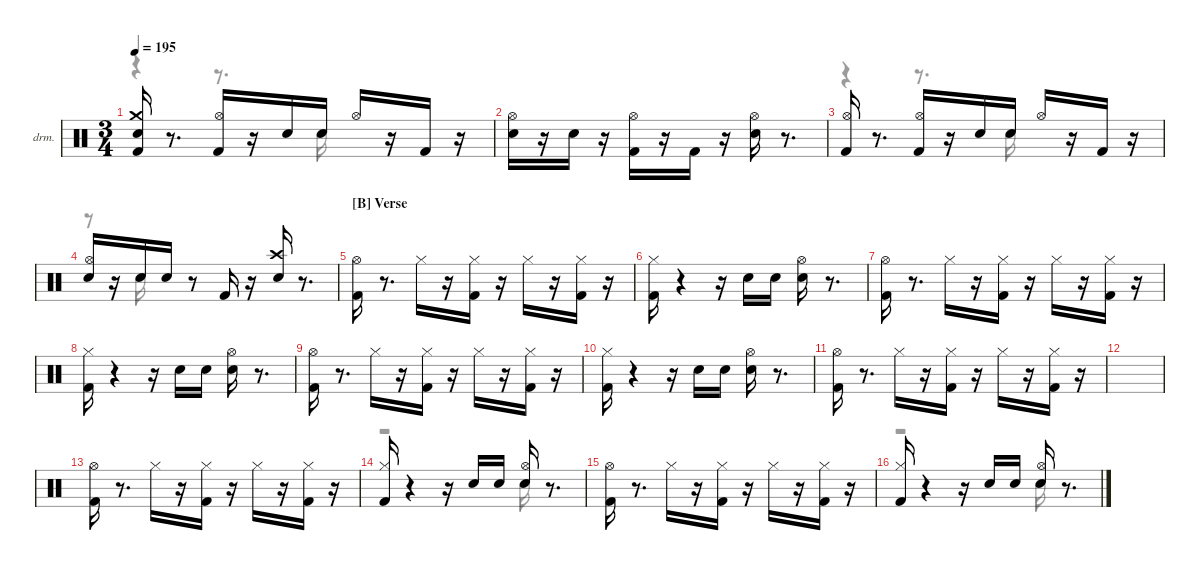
\hideDynamics
\bracketExtendMode nobrackets
\firstSystemTrackNameOrientation horizontal
\track ("Drums" "drm.") {instrument percussion}
\staff {score}
\articulation defaults
\voice
\ts (3 4)
\tempo 195
\clef neutral
\ks aminor
("Kick (hit) 2" "Snare (hit) 2" "Crash medium (hit)").16{dy ff} r.8{d} ("Kick (hit) 2" "Hi-Hat (open)"{acc #}).16{dy mf} r.16 "Snare (hit) 2".16{dy f} "Snare (hit) 2".16{dy ppp} "Hi-Hat (open)"{acc #}.16{dy mf} r.16 "Kick (hit) 2".16{dy f} r.16 |
("Snare (hit) 2" "Hi-Hat (open)"{acc #}).16{dy ff} r.16 "Snare (hit) 2".16{dy ppp} r.16 ("Kick (hit) 2" "Hi-Hat (open)"{acc #}).16 r.16 "Kick (hit) 2".16{dy ff} r.16 ("Snare (hit) 2" "Hi-Hat (open)"{acc #}).16{dy f} r.8{d} |
("Kick (hit) 2" "Hi-Hat (open)"{acc #}).16{dy fff} r.8{d} ("Kick (hit) 2" "Hi-Hat (open)"{acc #}).16{dy f} r.16 "Snare (hit) 2".16 "Snare (hit) 2".16{dy ppp} "Hi-Hat (open)"{acc #}.16{dy ff} r.16 "Kick (hit) 2".16{dy f} r.16 |
("Snare (hit) 2" "Hi-Hat (open)"{acc #}).16{dy fff} r.16 "Snare (hit) 2".16{dy f} "Snare (hit) 2".16{dy mp} r.8 "Kick (hit) 2".16{dy ff} r.16 ("Snare (hit) 2" "Crash high (hit)"{acc #}).16{dy fff} r.8{d} |
\section ("B" "Verse")
("Kick (hit) 2" "Hi-Hat (open)"{acc #}).16{dy ff} r.8{d} "Hi-Hat (closed)"{acc #}.16{dy f} r.16 ("Kick (hit) 2" "Hi-Hat (closed)"{acc #}).16{dy ppp} r.16 "Hi-Hat (closed)"{acc #}.16{dy f} r.16 ("Kick (hit) 2" "Hi-Hat (closed)"{acc #}).16{dy mp} r.16 |
("Kick (hit) 2" "Hi-Hat (closed)"{acc #}).16{dy ff} r.4 r.16 "Snare (hit) 2".16{dy pp} "Snare (hit) 2".16{dy ppp} ("Snare (hit) 2" "Hi-Hat (open)"{acc #}).16{dy ff} r.8{d} |
("Kick (hit) 2" "Hi-Hat (open)"{acc #}).16 r.8{d} "Hi-Hat (closed)"{acc #}.16{dy f} r.16 ("Kick (hit) 2" "Hi-Hat (closed)"{acc #}).16 r.16 "Hi-Hat (closed)"{acc #}.16 r.16 ("Kick (hit) 2" "Hi-Hat (closed)"{acc #}).16{dy mp} r.16 |
("Kick (hit) 2" "Hi-Hat (closed)"{acc #}).16{dy ff} r.4 r.16 "Snare (hit) 2".16{dy pp} "Snare (hit) 2".16{dy ppp} ("Snare (hit) 2" "Hi-Hat (open)"{acc #}).16{dy ff} r.8{d} |
("Kick (hit) 2" "Hi-Hat (open)"{acc #}).16 r.8{d} "Hi-Hat (closed)"{acc #}.16{dy f} r.16 ("Kick (hit) 2" "Hi-Hat (closed)"{acc #}).16{dy ppp} r.16 "Hi-Hat (closed)"{acc #}.16{dy f} r.16 ("Kick (hit) 2" "Hi-Hat (closed)"{acc #}).16{dy ppp} r.16 |
("Kick (hit) 2" "Hi-Hat (closed)"{acc #}).16{dy ff} r.4 r.16 "Snare (hit) 2".16{dy pp} "Snare (hit) 2".16{dy ppp} ("Snare (hit) 2" "Hi-Hat (open)"{acc #}).16{dy ff} r.8{d} |
("Kick (hit) 2" "Hi-Hat (open)"{acc #}).16 r.8{d} "Hi-Hat (closed)"{acc #}.16{dy f} r.16 ("Kick (hit) 2" "Hi-Hat (closed)"{acc #}).16{dy ppp} r.16 "Hi-Hat (closed)"{acc #}.16{dy f} r.16 ("Kick (hit) 2" "Hi-Hat (closed)"{acc #}).16{dy mp} r.16 |
|
("Kick (hit) 2" "Hi-Hat (open)"{acc #}).16{dy ff} r.8{d} "Hi-Hat (closed)"{acc #}.16{dy f} r.16 ("Kick (hit) 2" "Hi-Hat (closed)"{acc #}).16 r.16 "Hi-Hat (closed)"{acc #}.16 r.16 ("Kick (hit) 2" "Hi-Hat (closed)"{acc #}).16{dy mp} r.16 |
("Kick (hit) 2" "Hi-Hat (closed)"{acc #}).16{dy ff} r.4 r.16 "Snare (hit) 2".16{dy pp} "Snare (hit) 2".16{dy ppp} ("Snare (hit) 2" "Hi-Hat (open)"{acc #}).16{dy ff} r.8{d} |
("Kick (hit) 2" "Hi-Hat (open)"{acc #}).16 r.8{d} "Hi-Hat (closed)"{acc #}.16{dy f} r.16 ("Kick (hit) 2" "Hi-Hat (closed)"{acc #}).16 r.16 "Hi-Hat (closed)"{acc #}.16 r.16 ("Kick (hit) 2" "Hi-Hat (closed)"{acc #}).16{dy ppp} r.16 |
("Kick (hit) 2" "Hi-Hat (closed)"{acc #}).16{dy ff} r.4 r.16 "Snare (hit) 2".16{dy pp} "Snare (hit) 2".16{dy ppp} ("Snare (hit) 2" "Hi-Hat (open)"{acc #}).16{dy ff} r.8{d}
\voice
\clef neutral
\ottava regular
\simile none
\ks aminor
r.4{dy pp} r.8{d} "Snare (hit) 2".16 |
|
r.4 r.8{d} "Snare (hit) 2".16 |
r.8 "Snare (hit) 2".16{dy ppp} |
|
|
|
|
|
|
|
|
|
r.2 "Snare (hit) 2".16{dy fff} |
|
r.2 "Snare (hit) 2".16
